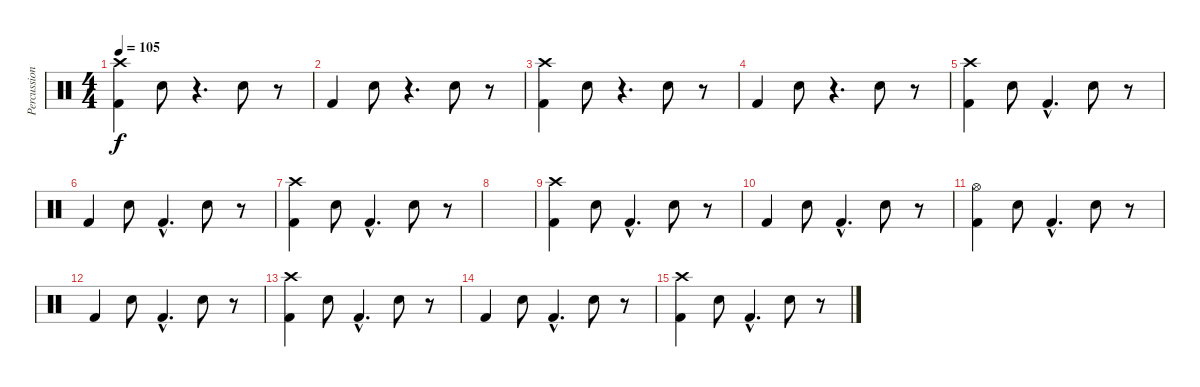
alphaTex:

\track ("Percussion" "Percussion") {instrument percussion}
\staff {score}
\articulation defaults
\ts (4 4)
\tempo 105
\clef neutral
\ks c
("Crash high (hit)" "Kick (hit) 2").4{dy f} "Hand Clap (hit)".8 r.4{d} "Hand Clap (hit)".8 r.8 |
"Kick (hit) 2".4 "Hand Clap (hit)".8 r.4{d} "Hand Clap (hit)".8 r.8 |
("Crash high (hit)" "Kick (hit) 2").4 "Hand Clap (hit)".8 r.4{d} "Hand Clap (hit)".8 r.8 |
"Kick (hit) 2".4 "Hand Clap (hit)".8 r.4{d} "Hand Clap (hit)".8 r.8 |
("Crash high (hit)" "Kick (hit) 2").4 "Hand Clap (hit)".8 "Kick (hit) 2"{hac}.4{d} "Hand Clap (hit)".8 r.8 |
"Kick (hit) 2".4 "Hand Clap (hit)".8 "Kick (hit) 2"{hac}.4{d} "Hand Clap (hit)".8 r.8 |
("Crash high (hit)" "Kick (hit) 2").4 "Hand Clap (hit)".8 "Kick (hit) 2"{hac}.4{d} "Hand Clap (hit)".8 r.8 |
|
("Crash high (hit)" "Kick (hit) 2").4 "Hand Clap (hit)".8 "Kick (hit) 2"{hac}.4{d} "Hand Clap (hit)".8 r.8 |
"Kick (hit) 2".4 "Hand Clap (hit)".8 "Kick (hit) 2"{hac}.4{d} "Hand Clap (hit)".8 r.8 |
("Hi-Hat (open)" "Kick (hit) 2").4 "Hand Clap (hit)".8 "Kick (hit) 2"{hac}.4{d} "Hand Clap (hit)".8 r.8 |
"Kick (hit) 2".4 "Hand Clap (hit)".8 "Kick (hit) 2"{hac}.4{d} "Hand Clap (hit)".8 r.8 |
("Crash high (hit)" "Kick (hit) 2").4 "Hand Clap (hit)".8 "Kick (hit) 2"{hac}.4{d} "Hand Clap (hit)".8 r.8 |
"Kick (hit) 2".4 "Hand Clap (hit)".8 "Kick (hit) 2"{hac}.4{d} "Hand Clap (hit)".8 r.8 |
("Crash high (hit)" "Kick (hit) 2").4 "Hand Clap (hit)".8 "Kick (hit) 2"{hac}.4{d} "Hand Clap (hit)".8 r.8
